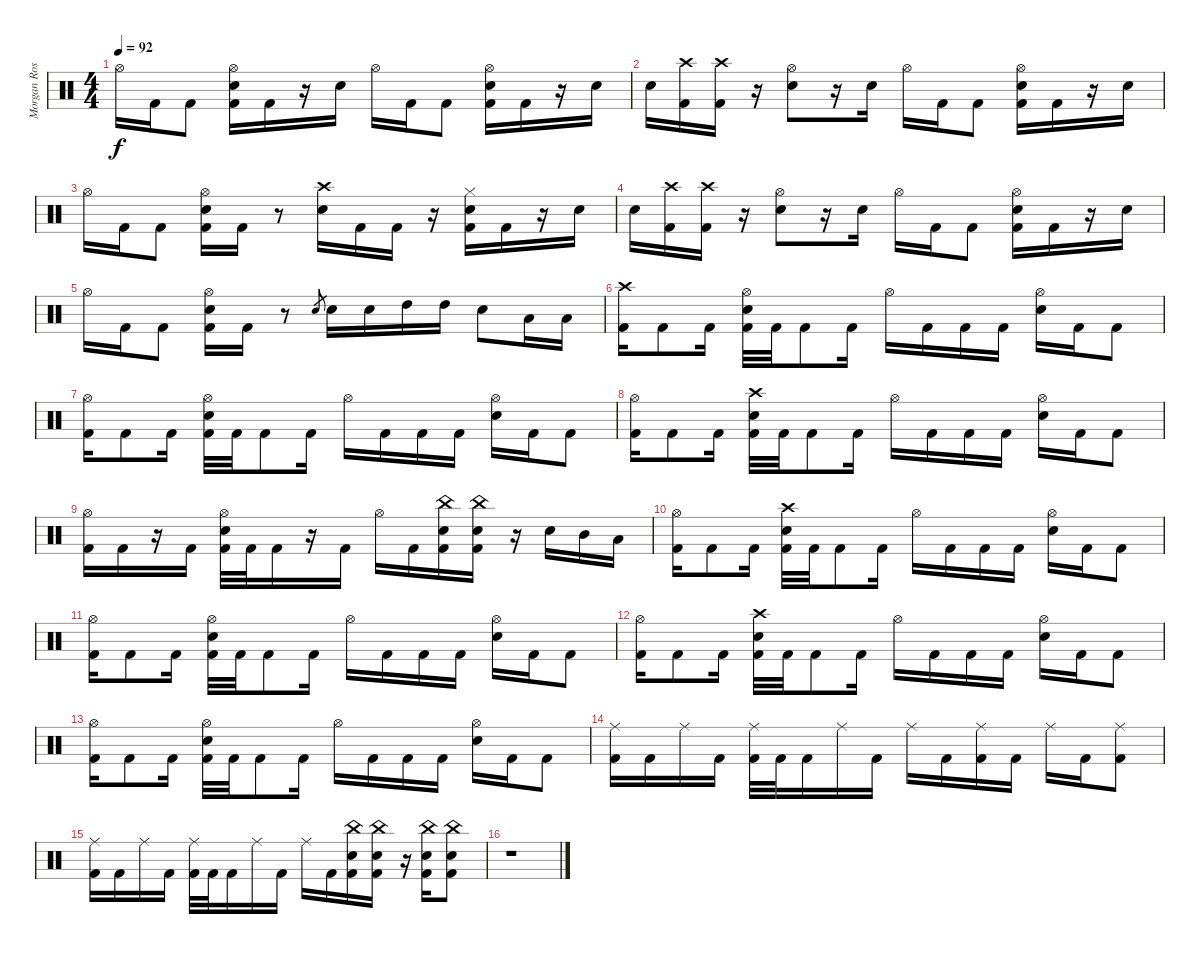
\track ("Morgan Rose - Drums" "Morgan Ros") {instrument percussion}
\staff {score}
\articulation defaults
\ts (4 4)
\tempo 92
\clef neutral
\ks c "Hi-Hat (open)".16{dy f} "Kick (hit) 2".16 "Kick (hit) 2".8
("Hi-Hat (open)" "Electric Snare (hit)" "Kick (hit) 2").16 "Kick (hit) 2".16 r.16 "Electric Snare (hit)".16 "Hi-Hat (open)".16 "Kick (hit) 2".16 "Kick (hit) 2".8 ("Hi-Hat (open)" "Electric Snare (hit)" "Kick (hit) 2").16 "Kick (hit) 2".16 r.16 "Electric Snare (hit)".16 |
"Electric Snare (hit)".16 ("Crash high (hit)" "Kick (hit) 2").16 ("Crash high (hit)" "Kick (hit) 2").16 r.16 ("Hi-Hat (open)" "Electric Snare (hit)").8 r.16 "Electric Snare (hit)".16 "Hi-Hat (open)".16 "Kick (hit) 2".16 "Kick (hit) 2".8 ("Hi-Hat (open)" "Electric Snare (hit)" "Kick (hit) 2").16 "Kick (hit) 2".16 r.16 "Electric Snare (hit)".16 |
"Hi-Hat (open)".16 "Kick (hit) 2".16 "Kick (hit) 2".8 ("Hi-Hat (open)" "Electric Snare (hit)" "Kick (hit) 2").16 "Kick (hit) 2".16 r.8 ("Crash high (hit)" "Electric Snare (hit)").16 "Kick (hit) 2".16 "Kick (hit) 2".16 r.16 ("Hi-Hat (closed)" "Electric Snare (hit)" "Kick (hit) 2").16 "Kick (hit) 2".16 r.16 "Electric Snare (hit)".16 |
"Electric Snare (hit)".16 ("Crash high (hit)" "Kick (hit) 2").16 ("Crash high (hit)" "Kick (hit) 2").16 r.16 ("Hi-Hat (open)" "Electric Snare (hit)").8 r.16 "Electric Snare (hit)".16 "Hi-Hat (open)".16 "Kick (hit) 2".16 "Kick (hit) 2".8 ("Hi-Hat (open)" "Electric Snare (hit)" "Kick (hit) 2").16 "Kick (hit) 2".16 r.16 "Electric Snare (hit)".16 |
"Hi-Hat (open)".16 "Kick (hit) 2".16 "Kick (hit) 2".8 ("Hi-Hat (open)" "Electric Snare (hit)" "Kick (hit) 2").16 "Kick (hit) 2".16 r.8 "Electric Snare (hit)".8{gr} "Electric Snare (hit)".16 "Electric Snare (hit)".16 "High Tom (hit)".16 "High Tom (hit)".16 "Electric Snare (hit)".8 "Low Tom (hit)".16 "Low Tom (hit)".16 |
("Crash high (hit)" "Kick (hit) 2").16 "Kick (hit) 2".8 "Kick (hit) 2".16 ("Hi-Hat (open)" "Electric Snare (hit)" "Kick (hit) 2").32 "Kick (hit) 2".32 "Kick (hit) 2".8 "Kick (hit) 2".16 "Hi-Hat (open)".16 "Kick (hit) 2".16 "Kick (hit) 2".16 "Kick (hit) 2".16 ("Hi-Hat (open)" "Electric Snare (hit)").16 "Kick (hit) 2".16 "Kick (hit) 2".8 |
("Hi-Hat (open)" "Kick (hit) 2").16 "Kick (hit) 2".8 "Kick (hit) 2".16 ("Hi-Hat (open)" "Electric Snare (hit)" "Kick (hit) 2").32 "Kick (hit) 2".32 "Kick (hit) 2".8 "Kick (hit) 2".16 "Hi-Hat (open)".16 "Kick (hit) 2".16 "Kick (hit) 2".16 "Kick (hit) 2".16 ("Hi-Hat (open)" "Electric Snare (hit)").16 "Kick (hit) 2".16 "Kick (hit) 2".8 |
("Hi-Hat (open)" "Kick (hit) 2").16 "Kick (hit) 2".8 "Kick (hit) 2".16 ("Crash high (hit)" "Electric Snare (hit)" "Kick (hit) 2").32 "Kick (hit) 2".32 "Kick (hit) 2".8 "Kick (hit) 2".16 "Hi-Hat (open)".16 "Kick (hit) 2".16 "Kick (hit) 2".16 "Kick (hit) 2".16 ("Hi-Hat (open)" "Electric Snare (hit)").16 "Kick (hit) 2".16 "Kick (hit) 2".8 |
("Hi-Hat (open)" "Kick (hit) 2").16 "Kick (hit) 2".16 r.16 "Kick (hit) 2".16 ("Hi-Hat (open)" "Electric Snare (hit)" "Kick (hit) 2").32 "Kick (hit) 2".32 "Kick (hit) 2".16 r.16 "Kick (hit) 2".16 "Hi-Hat (open)".16 "Kick (hit) 2".16 ("China (hit)" "Electric Snare (hit)" "Kick (hit) 2").16 ("China (hit)" "Electric Snare (hit)" "Kick (hit) 2").16 r.16 "Electric Snare (hit)".16 "Mid Tom (hit)".16 "Low Tom (hit)".16 |
("Hi-Hat (open)" "Kick (hit) 2").16 "Kick (hit) 2".8 "Kick (hit) 2".16 ("Crash high (hit)" "Electric Snare (hit)" "Kick (hit) 2").32 "Kick (hit) 2".32 "Kick (hit) 2".8 "Kick (hit) 2".16 "Hi-Hat (open)".16 "Kick (hit) 2".16 "Kick (hit) 2".16 "Kick (hit) 2".16 ("Hi-Hat (open)" "Electric Snare (hit)").16 "Kick (hit) 2".16 "Kick (hit) 2".8 |
("Hi-Hat (open)" "Kick (hit) 2").16 "Kick (hit) 2".8 "Kick (hit) 2".16 ("Hi-Hat (open)" "Electric Snare (hit)" "Kick (hit) 2").32 "Kick (hit) 2".32 "Kick (hit) 2".8 "Kick (hit) 2".16 "Hi-Hat (open)".16 "Kick (hit) 2".16 "Kick (hit) 2".16 "Kick (hit) 2".16 ("Hi-Hat (open)" "Electric Snare (hit)").16 "Kick (hit) 2".16 "Kick (hit) 2".8 |
("Hi-Hat (open)" "Kick (hit) 2").16 "Kick (hit) 2".8 "Kick (hit) 2".16 ("Crash high (hit)" "Electric Snare (hit)" "Kick (hit) 2").32 "Kick (hit) 2".32 "Kick (hit) 2".8 "Kick (hit) 2".16 "Hi-Hat (open)".16 "Kick (hit) 2".16 "Kick (hit) 2".16 "Kick (hit) 2".16 ("Hi-Hat (open)" "Electric Snare (hit)").16 "Kick (hit) 2".16 "Kick (hit) 2".8 |
("Hi-Hat (open)" "Kick (hit) 2").16 "Kick (hit) 2".8 "Kick (hit) 2".16 ("Hi-Hat (open)" "Electric Snare (hit)" "Kick (hit) 2").32 "Kick (hit) 2".32 "Kick (hit) 2".8 "Kick (hit) 2".16 "Hi-Hat (open)".16 "Kick (hit) 2".16 "Kick (hit) 2".16 "Kick (hit) 2".16 ("Hi-Hat (open)" "Electric Snare (hit)").16 "Kick (hit) 2".16 "Kick (hit) 2".8 |
("Ride (middle)" "Kick (hit) 2").16 "Kick (hit) 2".16 "Ride (middle)".16 "Kick (hit) 2".16 ("Ride (middle)" "Kick (hit) 2").32 "Kick (hit) 2".32 "Kick (hit) 2".16 "Ride (middle)".16 "Kick (hit) 2".16 "Ride (middle)".16 "Kick (hit) 2".16 ("Ride (middle)" "Kick (hit) 2").16 "Kick (hit) 2".16 "Ride (middle)".16 "Kick (hit) 2".16 ("Ride (middle)" "Kick (hit) 2").8 |
("Ride (middle)" "Kick (hit) 2").16 "Kick (hit) 2".16 "Ride (middle)".16 "Kick (hit) 2".16 ("Ride (middle)" "Kick (hit) 2").32 "Kick (hit) 2".32 "Kick (hit) 2".16 "Ride (middle)".16 "Kick (hit) 2".16 "Ride (middle)".16 "Kick (hit) 2".16 ("China (hit)" "Electric Snare (hit)" "Kick (hit) 2").16 ("China (hit)" "Electric Snare (hit)" "Kick (hit) 2").16 r.16 ("China (hit)" "Electric Snare (hit)" "Kick (hit) 2").16 ("China (hit)" "Electric Snare (hit)" "Kick (hit) 2").8 |
r.1
